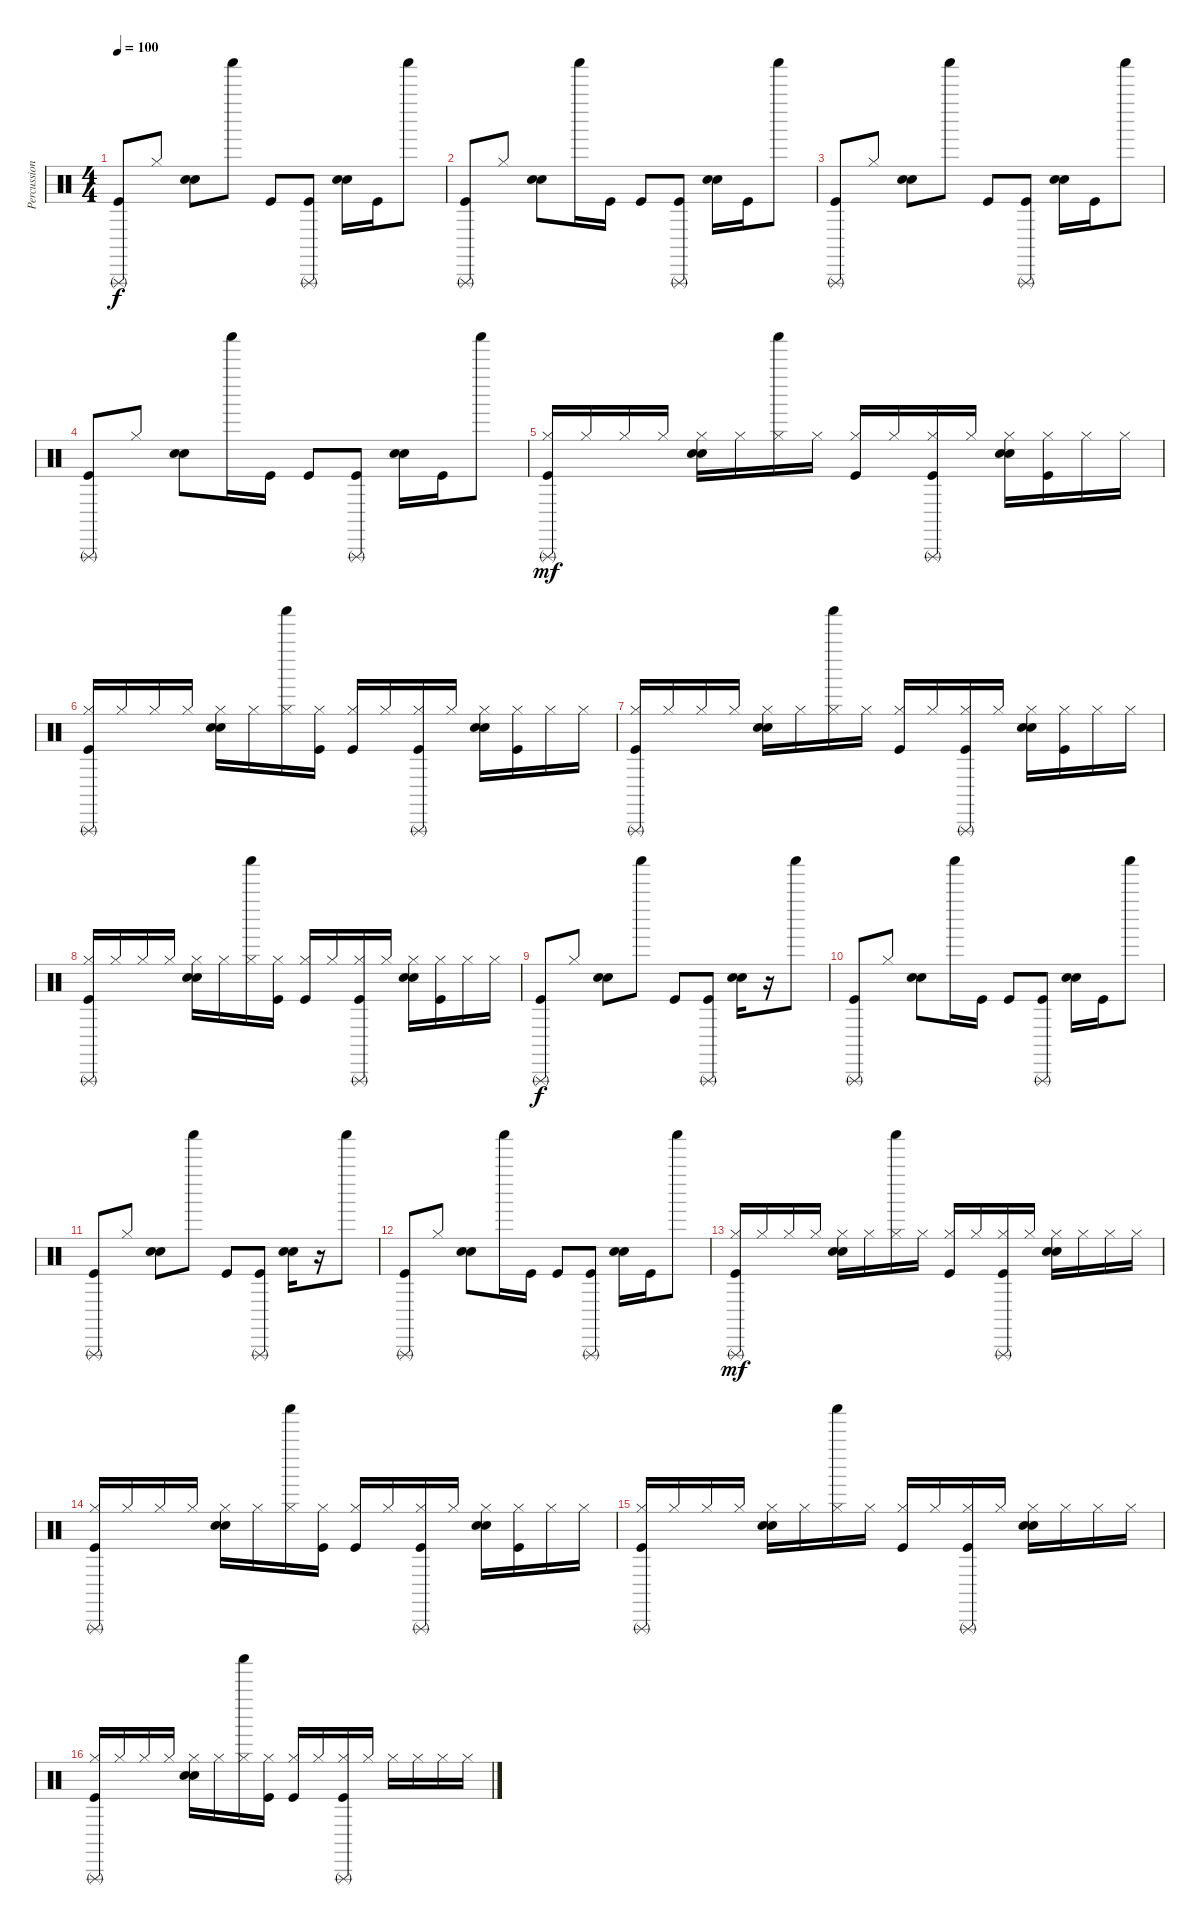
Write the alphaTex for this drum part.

\track ("Percussion" "Percussion") {instrument percussion}
\staff {score}
\articulation defaults
\ts (4 4)
\tempo 100
\clef neutral
\ks c
("Triangle (rnute)" "Kick (hit)").8{dy f} "Hi-Hat (closed)".8 ("Hand Clap (hit)" "Electric Snare (hit)").8 "Shaker (hit)".8 "Kick (hit)".8 ("Triangle (rnute)" "Kick (hit)").8 ("Hand Clap (hit)" "Electric Snare (hit)").16 "Kick (hit)".16 "Shaker (hit)".8 |
("Triangle (rnute)" "Kick (hit)").8 "Hi-Hat (closed)".8 ("Hand Clap (hit)" "Electric Snare (hit)").8 "Shaker (hit)".16 "Kick (hit)".16 "Kick (hit)".8 ("Triangle (rnute)" "Kick (hit)").8 ("Hand Clap (hit)" "Electric Snare (hit)").16 "Kick (hit)".16 "Shaker (hit)".8 |
("Triangle (rnute)" "Kick (hit)").8 "Hi-Hat (closed)".8 ("Hand Clap (hit)" "Electric Snare (hit)").8 "Shaker (hit)".8 "Kick (hit)".8 ("Triangle (rnute)" "Kick (hit)").8 ("Hand Clap (hit)" "Electric Snare (hit)").16 "Kick (hit)".16 "Shaker (hit)".8 |
("Triangle (rnute)" "Kick (hit)").8 "Hi-Hat (closed)".8 ("Hand Clap (hit)" "Electric Snare (hit)").8 "Shaker (hit)".16 "Kick (hit)".16 "Kick (hit)".8 ("Triangle (rnute)" "Kick (hit)").8 ("Hand Clap (hit)" "Electric Snare (hit)").16 "Kick (hit)".16 "Shaker (hit)".8 |
("Triangle (rnute)" "Hi-Hat (closed)" "Kick (hit)").16{dy mf} "Hi-Hat (closed)".16 "Hi-Hat (closed)".16 "Hi-Hat (closed)".16 ("Hi-Hat (closed)" "Hand Clap (hit)" "Electric Snare (hit)").16 "Hi-Hat (closed)".16 ("Shaker (hit)" "Hi-Hat (closed)").16 "Hi-Hat (closed)".16 ("Hi-Hat (closed)" "Kick (hit)").16 "Hi-Hat (closed)".16 ("Triangle (rnute)" "Hi-Hat (closed)" "Kick (hit)").16 "Hi-Hat (closed)".16 ("Hi-Hat (closed)" "Hand Clap (hit)" "Electric Snare (hit)").16 ("Hi-Hat (closed)" "Kick (hit)").16 "Hi-Hat (closed)".16 "Hi-Hat (closed)".16 |
("Triangle (rnute)" "Hi-Hat (closed)" "Kick (hit)").16 "Hi-Hat (closed)".16 "Hi-Hat (closed)".16 "Hi-Hat (closed)".16 ("Hi-Hat (closed)" "Hand Clap (hit)" "Electric Snare (hit)").16 "Hi-Hat (closed)".16 ("Shaker (hit)" "Hi-Hat (closed)").16 ("Hi-Hat (closed)" "Kick (hit)").16 ("Hi-Hat (closed)" "Kick (hit)").16 "Hi-Hat (closed)".16 ("Triangle (rnute)" "Hi-Hat (closed)" "Kick (hit)").16 "Hi-Hat (closed)".16 ("Hi-Hat (closed)" "Hand Clap (hit)" "Electric Snare (hit)").16 ("Hi-Hat (closed)" "Kick (hit)").16 "Hi-Hat (closed)".16 "Hi-Hat (closed)".16 |
("Triangle (rnute)" "Hi-Hat (closed)" "Kick (hit)").16 "Hi-Hat (closed)".16 "Hi-Hat (closed)".16 "Hi-Hat (closed)".16 ("Hi-Hat (closed)" "Hand Clap (hit)" "Electric Snare (hit)").16 "Hi-Hat (closed)".16 ("Shaker (hit)" "Hi-Hat (closed)").16 "Hi-Hat (closed)".16 ("Hi-Hat (closed)" "Kick (hit)").16 "Hi-Hat (closed)".16 ("Triangle (rnute)" "Hi-Hat (closed)" "Kick (hit)").16 "Hi-Hat (closed)".16 ("Hi-Hat (closed)" "Hand Clap (hit)" "Electric Snare (hit)").16 ("Hi-Hat (closed)" "Kick (hit)").16 "Hi-Hat (closed)".16 "Hi-Hat (closed)".16 |
("Triangle (rnute)" "Hi-Hat (closed)" "Kick (hit)").16 "Hi-Hat (closed)".16 "Hi-Hat (closed)".16 "Hi-Hat (closed)".16 ("Hi-Hat (closed)" "Hand Clap (hit)" "Electric Snare (hit)").16 "Hi-Hat (closed)".16 ("Shaker (hit)" "Hi-Hat (closed)").16 ("Hi-Hat (closed)" "Kick (hit)").16 ("Hi-Hat (closed)" "Kick (hit)").16 "Hi-Hat (closed)".16 ("Triangle (rnute)" "Hi-Hat (closed)" "Kick (hit)").16 "Hi-Hat (closed)".16 ("Hi-Hat (closed)" "Hand Clap (hit)" "Electric Snare (hit)").16 ("Hi-Hat (closed)" "Kick (hit)").16 "Hi-Hat (closed)".16 "Hi-Hat (closed)".16 |
("Triangle (rnute)" "Kick (hit)").8{dy f} "Hi-Hat (closed)".8 ("Hand Clap (hit)" "Electric Snare (hit)").8 "Shaker (hit)".8 "Kick (hit)".8 ("Triangle (rnute)" "Kick (hit)").8 ("Hand Clap (hit)" "Electric Snare (hit)").16 r.16 "Shaker (hit)".8 |
("Triangle (rnute)" "Kick (hit)").8 "Hi-Hat (closed)".8 ("Hand Clap (hit)" "Electric Snare (hit)").8 "Shaker (hit)".16 "Kick (hit)".16 "Kick (hit)".8 ("Triangle (rnute)" "Kick (hit)").8 ("Hand Clap (hit)" "Electric Snare (hit)").16 "Kick (hit)".16 "Shaker (hit)".8 |
("Triangle (rnute)" "Kick (hit)").8 "Hi-Hat (closed)".8 ("Hand Clap (hit)" "Electric Snare (hit)").8 "Shaker (hit)".8 "Kick (hit)".8 ("Triangle (rnute)" "Kick (hit)").8 ("Hand Clap (hit)" "Electric Snare (hit)").16 r.16 "Shaker (hit)".8 |
("Triangle (rnute)" "Kick (hit)").8 "Hi-Hat (closed)".8 ("Hand Clap (hit)" "Electric Snare (hit)").8 "Shaker (hit)".16 "Kick (hit)".16 "Kick (hit)".8 ("Triangle (rnute)" "Kick (hit)").8 ("Hand Clap (hit)" "Electric Snare (hit)").16 "Kick (hit)".16 "Shaker (hit)".8 |
("Triangle (rnute)" "Hi-Hat (closed)" "Kick (hit)").16{dy mf} "Hi-Hat (closed)".16 "Hi-Hat (closed)".16 "Hi-Hat (closed)".16 ("Hi-Hat (closed)" "Hand Clap (hit)" "Electric Snare (hit)").16 "Hi-Hat (closed)".16 ("Shaker (hit)" "Hi-Hat (closed)").16 "Hi-Hat (closed)".16 ("Hi-Hat (closed)" "Kick (hit)").16 "Hi-Hat (closed)".16 ("Triangle (rnute)" "Hi-Hat (closed)" "Kick (hit)").16 "Hi-Hat (closed)".16 ("Hi-Hat (closed)" "Hand Clap (hit)" "Electric Snare (hit)").16 "Hi-Hat (closed)".16 "Hi-Hat (closed)".16 "Hi-Hat (closed)".16 |
("Triangle (rnute)" "Hi-Hat (closed)" "Kick (hit)").16 "Hi-Hat (closed)".16 "Hi-Hat (closed)".16 "Hi-Hat (closed)".16 ("Hi-Hat (closed)" "Hand Clap (hit)" "Electric Snare (hit)").16 "Hi-Hat (closed)".16 ("Shaker (hit)" "Hi-Hat (closed)").16 ("Hi-Hat (closed)" "Kick (hit)").16 ("Hi-Hat (closed)" "Kick (hit)").16 "Hi-Hat (closed)".16 ("Triangle (rnute)" "Hi-Hat (closed)" "Kick (hit)").16 "Hi-Hat (closed)".16 ("Hi-Hat (closed)" "Hand Clap (hit)" "Electric Snare (hit)").16 ("Hi-Hat (closed)" "Kick (hit)").16 "Hi-Hat (closed)".16 "Hi-Hat (closed)".16 |
("Triangle (rnute)" "Hi-Hat (closed)" "Kick (hit)").16 "Hi-Hat (closed)".16 "Hi-Hat (closed)".16 "Hi-Hat (closed)".16 ("Hi-Hat (closed)" "Hand Clap (hit)" "Electric Snare (hit)").16 "Hi-Hat (closed)".16 ("Shaker (hit)" "Hi-Hat (closed)").16 "Hi-Hat (closed)".16 ("Hi-Hat (closed)" "Kick (hit)").16 "Hi-Hat (closed)".16 ("Triangle (rnute)" "Hi-Hat (closed)" "Kick (hit)").16 "Hi-Hat (closed)".16 ("Hi-Hat (closed)" "Hand Clap (hit)" "Electric Snare (hit)").16 "Hi-Hat (closed)".16 "Hi-Hat (closed)".16 "Hi-Hat (closed)".16 |
("Triangle (rnute)" "Hi-Hat (closed)" "Kick (hit)").16 "Hi-Hat (closed)".16 "Hi-Hat (closed)".16 "Hi-Hat (closed)".16 ("Hi-Hat (closed)" "Hand Clap (hit)" "Electric Snare (hit)").16 "Hi-Hat (closed)".16 ("Shaker (hit)" "Hi-Hat (closed)").16 ("Hi-Hat (closed)" "Kick (hit)").16 ("Hi-Hat (closed)" "Kick (hit)").16 "Hi-Hat (closed)".16 ("Triangle (rnute)" "Hi-Hat (closed)" "Kick (hit)").16 "Hi-Hat (closed)".16 "Hi-Hat (closed)".16 "Hi-Hat (closed)".16 "Hi-Hat (closed)".16 "Hi-Hat (closed)".16
